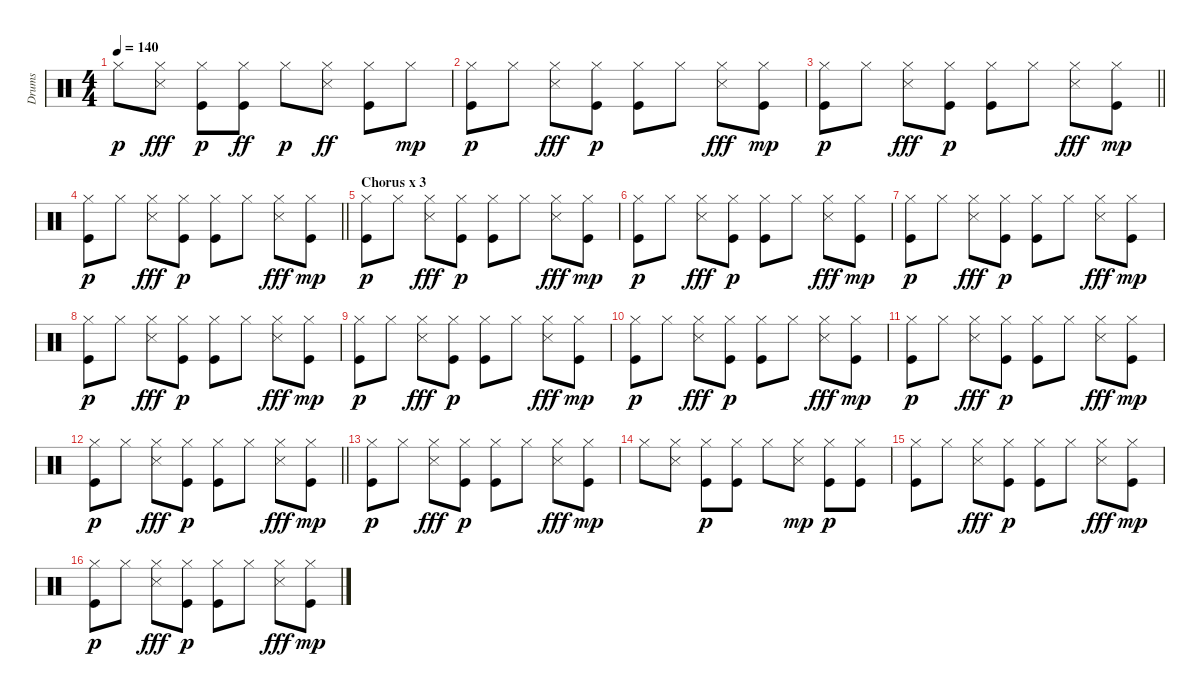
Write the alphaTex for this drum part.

\track ("Drums" "Drums") {instrument percussion}
\staff {score}
\articulation defaults
\ts (4 4)
\tempo 140
\clef neutral
\ks c "Hi-Hat (closed)".8{dy p}
("Hi-Hat (closed)" "Snare (side stick) 3").8{dy fff} ("Hi-Hat (closed)" "Kick (hit)").8{dy p} ("Hi-Hat (closed)" "Kick (hit)").8{dy ff} "Hi-Hat (closed)".8{dy p} ("Hi-Hat (closed)" "Snare (side stick) 3").8{dy ff} ("Hi-Hat (closed)" "Kick (hit)").8 "Hi-Hat (closed)".8{dy mp} |
("Kick (hit)" "Hi-Hat (closed)").8{dy p} "Hi-Hat (closed)".8 ("Hi-Hat (closed)" "Snare (side stick) 3").8{dy fff} ("Kick (hit)" "Hi-Hat (closed)").8{dy p} ("Kick (hit)" "Hi-Hat (closed)").8 "Hi-Hat (closed)".8 ("Hi-Hat (closed)" "Snare (side stick) 3").8{dy fff} ("Hi-Hat (closed)" "Kick (hit)").8{dy mp} |
\barLineRight lightlight
("Kick (hit)" "Hi-Hat (closed)").8{dy p} "Hi-Hat (closed)".8 ("Hi-Hat (closed)" "Snare (side stick) 3").8{dy fff} ("Kick (hit)" "Hi-Hat (closed)").8{dy p} ("Kick (hit)" "Hi-Hat (closed)").8 "Hi-Hat (closed)".8 ("Hi-Hat (closed)" "Snare (side stick) 3").8{dy fff} ("Hi-Hat (closed)" "Kick (hit)").8{dy mp} |
\section ("" "")
\barLineRight lightlight
("Kick (hit)" "Hi-Hat (closed)").8{dy p} "Hi-Hat (closed)".8 ("Hi-Hat (closed)" "Snare (side stick) 3").8{dy fff} ("Kick (hit)" "Hi-Hat (closed)").8{dy p} ("Kick (hit)" "Hi-Hat (closed)").8 "Hi-Hat (closed)".8 ("Hi-Hat (closed)" "Snare (side stick) 3").8{dy fff} ("Hi-Hat (closed)" "Kick (hit)").8{dy mp} |
\section ("" "Chorus x 3 ")
("Kick (hit)" "Hi-Hat (closed)").8{dy p} "Hi-Hat (closed)".8 ("Hi-Hat (closed)" "Snare (side stick) 3").8{dy fff} ("Kick (hit)" "Hi-Hat (closed)").8{dy p} ("Kick (hit)" "Hi-Hat (closed)").8 "Hi-Hat (closed)".8 ("Hi-Hat (closed)" "Snare (side stick) 3").8{dy fff} ("Hi-Hat (closed)" "Kick (hit)").8{dy mp} |
("Kick (hit)" "Hi-Hat (closed)").8{dy p} "Hi-Hat (closed)".8 ("Hi-Hat (closed)" "Snare (side stick) 3").8{dy fff} ("Kick (hit)" "Hi-Hat (closed)").8{dy p} ("Kick (hit)" "Hi-Hat (closed)").8 "Hi-Hat (closed)".8 ("Hi-Hat (closed)" "Snare (side stick) 3").8{dy fff} ("Hi-Hat (closed)" "Kick (hit)").8{dy mp} |
("Kick (hit)" "Hi-Hat (closed)").8{dy p} "Hi-Hat (closed)".8 ("Hi-Hat (closed)" "Snare (side stick) 3").8{dy fff} ("Kick (hit)" "Hi-Hat (closed)").8{dy p} ("Kick (hit)" "Hi-Hat (closed)").8 "Hi-Hat (closed)".8 ("Hi-Hat (closed)" "Snare (side stick) 3").8{dy fff} ("Hi-Hat (closed)" "Kick (hit)").8{dy mp} |
("Kick (hit)" "Hi-Hat (closed)").8{dy p} "Hi-Hat (closed)".8 ("Hi-Hat (closed)" "Snare (side stick) 3").8{dy fff} ("Kick (hit)" "Hi-Hat (closed)").8{dy p} ("Kick (hit)" "Hi-Hat (closed)").8 "Hi-Hat (closed)".8 ("Hi-Hat (closed)" "Snare (side stick) 3").8{dy fff} ("Hi-Hat (closed)" "Kick (hit)").8{dy mp} |
("Kick (hit)" "Hi-Hat (closed)").8{dy p} "Hi-Hat (closed)".8 ("Hi-Hat (closed)" "Snare (side stick) 3").8{dy fff} ("Kick (hit)" "Hi-Hat (closed)").8{dy p} ("Kick (hit)" "Hi-Hat (closed)").8 "Hi-Hat (closed)".8 ("Hi-Hat (closed)" "Snare (side stick) 3").8{dy fff} ("Hi-Hat (closed)" "Kick (hit)").8{dy mp} |
("Kick (hit)" "Hi-Hat (closed)").8{dy p} "Hi-Hat (closed)".8 ("Hi-Hat (closed)" "Snare (side stick) 3").8{dy fff} ("Kick (hit)" "Hi-Hat (closed)").8{dy p} ("Kick (hit)" "Hi-Hat (closed)").8 "Hi-Hat (closed)".8 ("Hi-Hat (closed)" "Snare (side stick) 3").8{dy fff} ("Hi-Hat (closed)" "Kick (hit)").8{dy mp} |
("Kick (hit)" "Hi-Hat (closed)").8{dy p} "Hi-Hat (closed)".8 ("Hi-Hat (closed)" "Snare (side stick) 3").8{dy fff} ("Kick (hit)" "Hi-Hat (closed)").8{dy p} ("Kick (hit)" "Hi-Hat (closed)").8 "Hi-Hat (closed)".8 ("Hi-Hat (closed)" "Snare (side stick) 3").8{dy fff} ("Hi-Hat (closed)" "Kick (hit)").8{dy mp} |
\barLineRight lightlight
("Kick (hit)" "Hi-Hat (closed)").8{dy p} "Hi-Hat (closed)".8 ("Hi-Hat (closed)" "Snare (side stick) 3").8{dy fff} ("Kick (hit)" "Hi-Hat (closed)").8{dy p} ("Kick (hit)" "Hi-Hat (closed)").8 "Hi-Hat (closed)".8 ("Hi-Hat (closed)" "Snare (side stick) 3").8{dy fff} ("Hi-Hat (closed)" "Kick (hit)").8{dy mp} |
\section ("" "")
("Kick (hit)" "Hi-Hat (closed)").8{dy p} "Hi-Hat (closed)".8 ("Hi-Hat (closed)" "Snare (side stick) 3").8{dy fff} ("Kick (hit)" "Hi-Hat (closed)").8{dy p} ("Kick (hit)" "Hi-Hat (closed)").8 "Hi-Hat (closed)".8 ("Hi-Hat (closed)" "Snare (side stick) 3").8{dy fff} ("Hi-Hat (closed)" "Kick (hit)").8{dy mp} |
"Hi-Hat (closed)".8 ("Hi-Hat (closed)" "Snare (side stick) 3").8 ("Hi-Hat (closed)" "Kick (hit)").8{dy p} ("Hi-Hat (closed)" "Kick (hit)").8 "Hi-Hat (closed)".8 ("Hi-Hat (closed)" "Snare (side stick) 3").8{dy mp} ("Kick (hit)" "Hi-Hat (closed)").8{dy p} ("Kick (hit)" "Hi-Hat (closed)").8 |
("Kick (hit)" "Hi-Hat (closed)").8 "Hi-Hat (closed)".8 ("Hi-Hat (closed)" "Snare (side stick) 3").8{dy fff} ("Kick (hit)" "Hi-Hat (closed)").8{dy p} ("Kick (hit)" "Hi-Hat (closed)").8 "Hi-Hat (closed)".8 ("Hi-Hat (closed)" "Snare (side stick) 3").8{dy fff} ("Hi-Hat (closed)" "Kick (hit)").8{dy mp} |
("Kick (hit)" "Hi-Hat (closed)").8{dy p} "Hi-Hat (closed)".8 ("Hi-Hat (closed)" "Snare (side stick) 3").8{dy fff} ("Kick (hit)" "Hi-Hat (closed)").8{dy p} ("Kick (hit)" "Hi-Hat (closed)").8 "Hi-Hat (closed)".8 ("Hi-Hat (closed)" "Snare (side stick) 3").8{dy fff} ("Hi-Hat (closed)" "Kick (hit)").8{dy mp}
